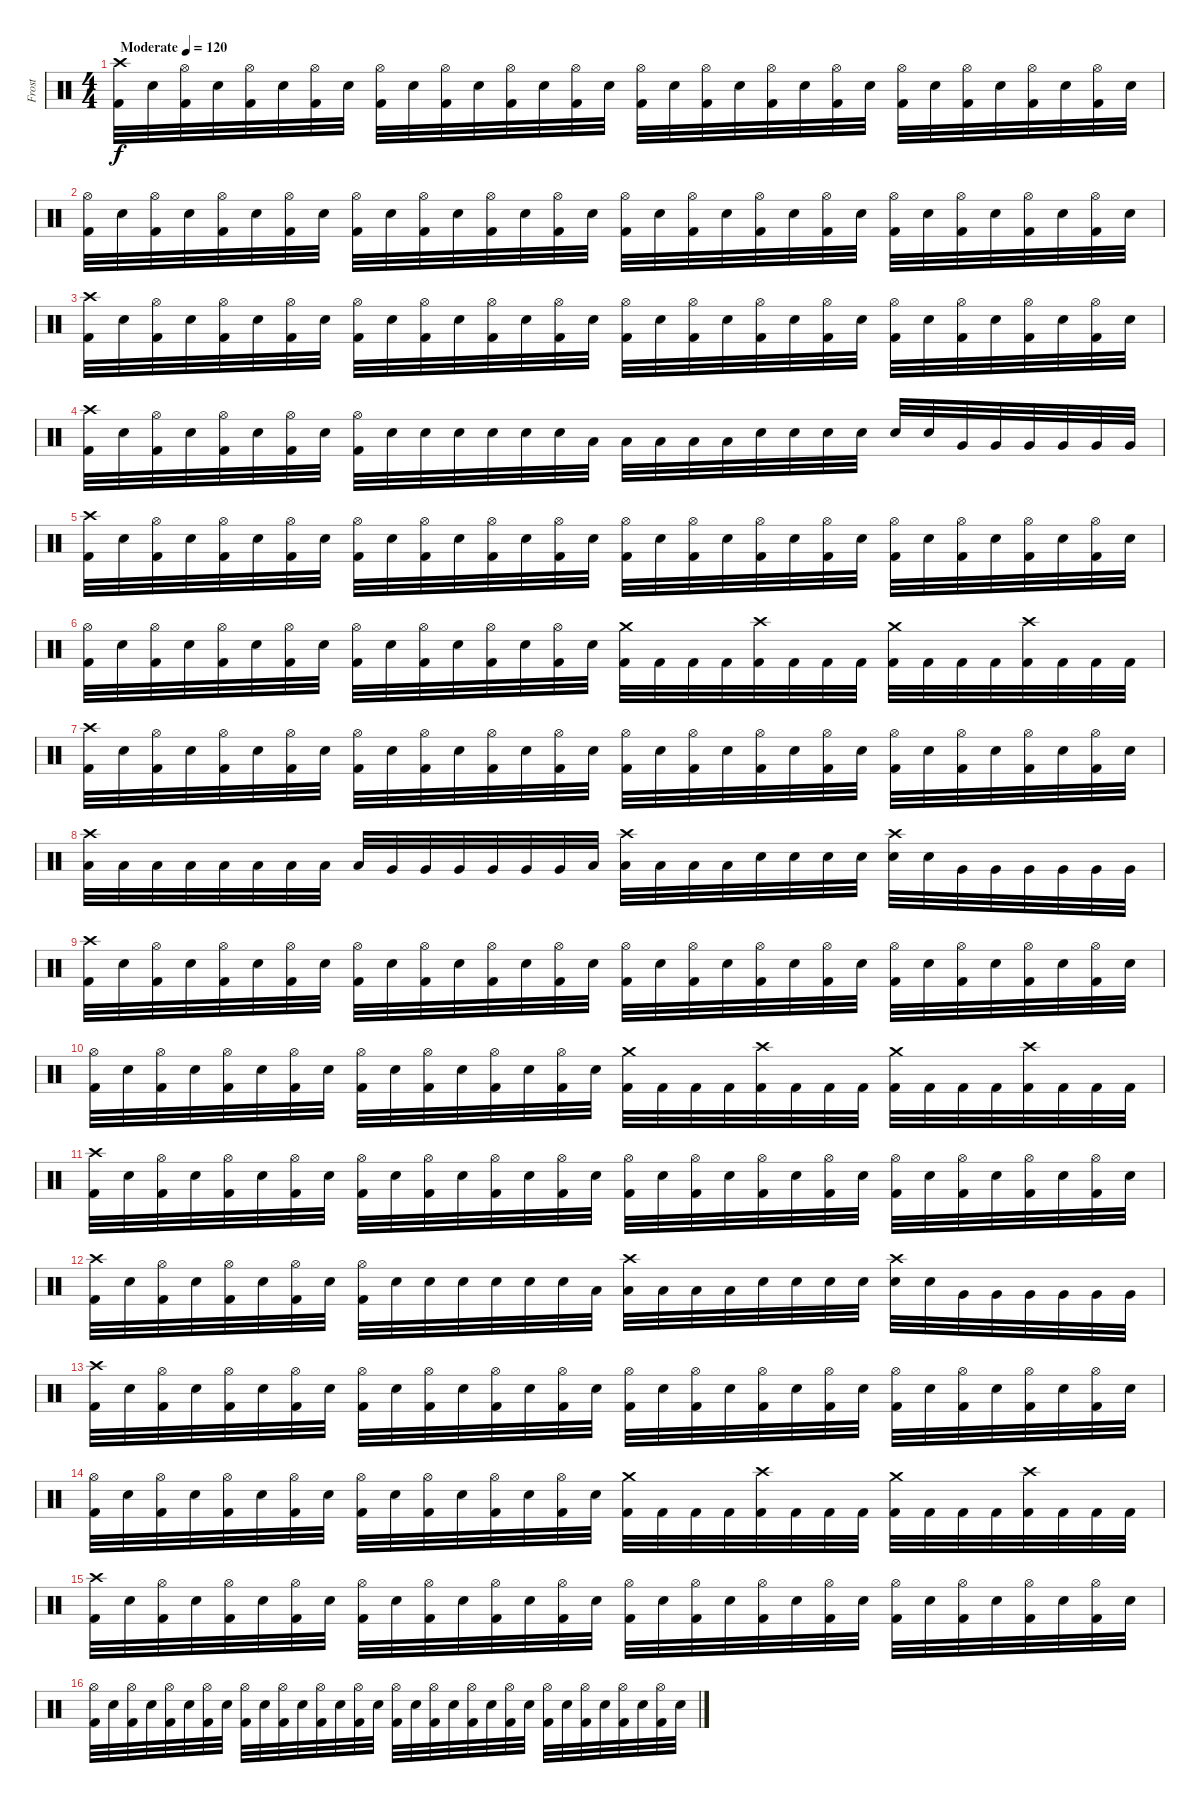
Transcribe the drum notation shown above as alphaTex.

\track ("Frost" "Frost") {instrument percussion}
\staff {score}
\articulation defaults
\ts (4 4)
\tempo (120 "Moderate")
\clef neutral
\ks c
("Crash high (hit)" "Kick (hit) 2").32{dy f} "Snare (hit) 2".32 ("Hi-Hat (open)" "Kick (hit) 2").32 "Snare (hit) 2".32 ("Hi-Hat (open)" "Kick (hit) 2").32 "Snare (hit) 2".32 ("Hi-Hat (open)" "Kick (hit) 2").32 "Snare (hit) 2".32 ("Hi-Hat (open)" "Kick (hit) 2").32 "Snare (hit) 2".32 ("Hi-Hat (open)" "Kick (hit) 2").32 "Snare (hit) 2".32 ("Hi-Hat (open)" "Kick (hit) 2").32 "Snare (hit) 2".32 ("Hi-Hat (open)" "Kick (hit) 2").32 "Snare (hit) 2".32 ("Hi-Hat (open)" "Kick (hit) 2").32 "Snare (hit) 2".32 ("Hi-Hat (open)" "Kick (hit) 2").32 "Snare (hit) 2".32 ("Hi-Hat (open)" "Kick (hit) 2").32 "Snare (hit) 2".32 ("Hi-Hat (open)" "Kick (hit) 2").32 "Snare (hit) 2".32 ("Hi-Hat (open)" "Kick (hit) 2").32 "Snare (hit) 2".32 ("Hi-Hat (open)" "Kick (hit) 2").32 "Snare (hit) 2".32 ("Hi-Hat (open)" "Kick (hit) 2").32 "Snare (hit) 2".32 ("Hi-Hat (open)" "Kick (hit) 2").32 "Snare (hit) 2".32 |
("Hi-Hat (open)" "Kick (hit) 2").32 "Snare (hit) 2".32 ("Hi-Hat (open)" "Kick (hit) 2").32 "Snare (hit) 2".32 ("Hi-Hat (open)" "Kick (hit) 2").32 "Snare (hit) 2".32 ("Hi-Hat (open)" "Kick (hit) 2").32 "Snare (hit) 2".32 ("Hi-Hat (open)" "Kick (hit) 2").32 "Snare (hit) 2".32 ("Hi-Hat (open)" "Kick (hit) 2").32 "Snare (hit) 2".32 ("Hi-Hat (open)" "Kick (hit) 2").32 "Snare (hit) 2".32 ("Hi-Hat (open)" "Kick (hit) 2").32 "Snare (hit) 2".32 ("Hi-Hat (open)" "Kick (hit) 2").32 "Snare (hit) 2".32 ("Hi-Hat (open)" "Kick (hit) 2").32 "Snare (hit) 2".32 ("Hi-Hat (open)" "Kick (hit) 2").32 "Snare (hit) 2".32 ("Hi-Hat (open)" "Kick (hit) 2").32 "Snare (hit) 2".32 ("Hi-Hat (open)" "Kick (hit) 2").32 "Snare (hit) 2".32 ("Hi-Hat (open)" "Kick (hit) 2").32 "Snare (hit) 2".32 ("Hi-Hat (open)" "Kick (hit) 2").32 "Snare (hit) 2".32 ("Hi-Hat (open)" "Kick (hit) 2").32 "Snare (hit) 2".32 |
("Crash high (hit)" "Kick (hit) 2").32 "Snare (hit) 2".32 ("Hi-Hat (open)" "Kick (hit) 2").32 "Snare (hit) 2".32 ("Hi-Hat (open)" "Kick (hit) 2").32 "Snare (hit) 2".32 ("Hi-Hat (open)" "Kick (hit) 2").32 "Snare (hit) 2".32 ("Hi-Hat (open)" "Kick (hit) 2").32 "Snare (hit) 2".32 ("Hi-Hat (open)" "Kick (hit) 2").32 "Snare (hit) 2".32 ("Hi-Hat (open)" "Kick (hit) 2").32 "Snare (hit) 2".32 ("Hi-Hat (open)" "Kick (hit) 2").32 "Snare (hit) 2".32 ("Hi-Hat (open)" "Kick (hit) 2").32 "Snare (hit) 2".32 ("Hi-Hat (open)" "Kick (hit) 2").32 "Snare (hit) 2".32 ("Hi-Hat (open)" "Kick (hit) 2").32 "Snare (hit) 2".32 ("Hi-Hat (open)" "Kick (hit) 2").32 "Snare (hit) 2".32 ("Hi-Hat (open)" "Kick (hit) 2").32 "Snare (hit) 2".32 ("Hi-Hat (open)" "Kick (hit) 2").32 "Snare (hit) 2".32 ("Hi-Hat (open)" "Kick (hit) 2").32 "Snare (hit) 2".32 ("Hi-Hat (open)" "Kick (hit) 2").32 "Snare (hit) 2".32 |
("Crash high (hit)" "Kick (hit) 2").32 "Snare (hit) 2".32 ("Hi-Hat (open)" "Kick (hit) 2").32 "Snare (hit) 2".32 ("Hi-Hat (open)" "Kick (hit) 2").32 "Snare (hit) 2".32 ("Hi-Hat (open)" "Kick (hit) 2").32 "Snare (hit) 2".32 ("Hi-Hat (open)" "Kick (hit) 2").32 "Snare (hit) 2".32 "Snare (hit) 2".32 "Snare (hit) 2".32 "Snare (hit) 2".32 "Snare (hit) 2".32 "Snare (hit) 2".32 "Low Tom (hit)".32 "Low Tom (hit)".32 "Low Tom (hit)".32 "Low Tom (hit)".32 "Low Tom (hit)".32 "Snare (hit) 2".32 "Snare (hit) 2".32 "Snare (hit) 2".32 "Snare (hit) 2".32 "Snare (hit) 2".32 "Snare (hit) 2".32 "Very Low Tom (hit)".32 "Very Low Tom (hit)".32 "Very Low Tom (hit)".32 "Very Low Tom (hit)".32 "Very Low Tom (hit)".32 "Very Low Tom (hit)".32 |
("Crash high (hit)" "Kick (hit) 2").32 "Snare (hit) 2".32 ("Hi-Hat (open)" "Kick (hit) 2").32 "Snare (hit) 2".32 ("Hi-Hat (open)" "Kick (hit) 2").32 "Snare (hit) 2".32 ("Hi-Hat (open)" "Kick (hit) 2").32 "Snare (hit) 2".32 ("Hi-Hat (open)" "Kick (hit) 2").32 "Snare (hit) 2".32 ("Hi-Hat (open)" "Kick (hit) 2").32 "Snare (hit) 2".32 ("Hi-Hat (open)" "Kick (hit) 2").32 "Snare (hit) 2".32 ("Hi-Hat (open)" "Kick (hit) 2").32 "Snare (hit) 2".32 ("Hi-Hat (open)" "Kick (hit) 2").32 "Snare (hit) 2".32 ("Hi-Hat (open)" "Kick (hit) 2").32 "Snare (hit) 2".32 ("Hi-Hat (open)" "Kick (hit) 2").32 "Snare (hit) 2".32 ("Hi-Hat (open)" "Kick (hit) 2").32 "Snare (hit) 2".32 ("Hi-Hat (open)" "Kick (hit) 2").32 "Snare (hit) 2".32 ("Hi-Hat (open)" "Kick (hit) 2").32 "Snare (hit) 2".32 ("Hi-Hat (open)" "Kick (hit) 2").32 "Snare (hit) 2".32 ("Hi-Hat (open)" "Kick (hit) 2").32 "Snare (hit) 2".32 |
("Hi-Hat (open)" "Kick (hit) 2").32 "Snare (hit) 2".32 ("Hi-Hat (open)" "Kick (hit) 2").32 "Snare (hit) 2".32 ("Hi-Hat (open)" "Kick (hit) 2").32 "Snare (hit) 2".32 ("Hi-Hat (open)" "Kick (hit) 2").32 "Snare (hit) 2".32 ("Hi-Hat (open)" "Kick (hit) 2").32 "Snare (hit) 2".32 ("Hi-Hat (open)" "Kick (hit) 2").32 "Snare (hit) 2".32 ("Hi-Hat (open)" "Kick (hit) 2").32 "Snare (hit) 2".32 ("Hi-Hat (open)" "Kick (hit) 2").32 "Snare (hit) 2".32 ("Crash medium (hit)" "Kick (hit) 2").32 "Kick (hit) 2".32 "Kick (hit) 2".32 "Kick (hit) 2".32 ("Crash high (hit)" "Kick (hit) 2").32 "Kick (hit) 2".32 "Kick (hit) 2".32 "Kick (hit) 2".32 ("Crash medium (hit)" "Kick (hit) 2").32 "Kick (hit) 2".32 "Kick (hit) 2".32 "Kick (hit) 2".32 ("Crash high (hit)" "Kick (hit) 2").32 "Kick (hit) 2".32 "Kick (hit) 2".32 "Kick (hit) 2".32 |
("Crash high (hit)" "Kick (hit) 2").32 "Snare (hit) 2".32 ("Hi-Hat (open)" "Kick (hit) 2").32 "Snare (hit) 2".32 ("Hi-Hat (open)" "Kick (hit) 2").32 "Snare (hit) 2".32 ("Hi-Hat (open)" "Kick (hit) 2").32 "Snare (hit) 2".32 ("Hi-Hat (open)" "Kick (hit) 2").32 "Snare (hit) 2".32 ("Hi-Hat (open)" "Kick (hit) 2").32 "Snare (hit) 2".32 ("Hi-Hat (open)" "Kick (hit) 2").32 "Snare (hit) 2".32 ("Hi-Hat (open)" "Kick (hit) 2").32 "Snare (hit) 2".32 ("Hi-Hat (open)" "Kick (hit) 2").32 "Snare (hit) 2".32 ("Hi-Hat (open)" "Kick (hit) 2").32 "Snare (hit) 2".32 ("Hi-Hat (open)" "Kick (hit) 2").32 "Snare (hit) 2".32 ("Hi-Hat (open)" "Kick (hit) 2").32 "Snare (hit) 2".32 ("Hi-Hat (open)" "Kick (hit) 2").32 "Snare (hit) 2".32 ("Hi-Hat (open)" "Kick (hit) 2").32 "Snare (hit) 2".32 ("Hi-Hat (open)" "Kick (hit) 2").32 "Snare (hit) 2".32 ("Hi-Hat (open)" "Kick (hit) 2").32 "Snare (hit) 2".32 |
("Crash high (hit)" "Low Tom (hit)").32 "Low Tom (hit)".32 "Low Tom (hit)".32 "Low Floor Tom (hit)".32 "Low Floor Tom (hit)".32 "Low Floor Tom (hit)".32 "Low Floor Tom (hit)".32 "Low Floor Tom (hit)".32 "Low Floor Tom (hit)".32 "Very Low Tom (hit)".32 "Very Low Tom (hit)".32 "Very Low Tom (hit)".32 "Very Low Tom (hit)".32 "Very Low Tom (hit)".32 "Very Low Tom (hit)".32 "Low Tom (hit)".32 ("Crash high (hit)" "Low Tom (hit)").32 "Low Tom (hit)".32 "Low Tom (hit)".32 "Low Tom (hit)".32 "Snare (hit) 2".32 "Snare (hit) 2".32 "Snare (hit) 2".32 "Snare (hit) 2".32 ("Crash high (hit)" "Snare (hit) 2").32 "Snare (hit) 2".32 "Very Low Tom (hit)".32 "Very Low Tom (hit)".32 "Very Low Tom (hit)".32 "Very Low Tom (hit)".32 "Very Low Tom (hit)".32 "Very Low Tom (hit)".32 |
("Crash high (hit)" "Kick (hit) 2").32 "Snare (hit) 2".32 ("Hi-Hat (open)" "Kick (hit) 2").32 "Snare (hit) 2".32 ("Hi-Hat (open)" "Kick (hit) 2").32 "Snare (hit) 2".32 ("Hi-Hat (open)" "Kick (hit) 2").32 "Snare (hit) 2".32 ("Hi-Hat (open)" "Kick (hit) 2").32 "Snare (hit) 2".32 ("Hi-Hat (open)" "Kick (hit) 2").32 "Snare (hit) 2".32 ("Hi-Hat (open)" "Kick (hit) 2").32 "Snare (hit) 2".32 ("Hi-Hat (open)" "Kick (hit) 2").32 "Snare (hit) 2".32 ("Hi-Hat (open)" "Kick (hit) 2").32 "Snare (hit) 2".32 ("Hi-Hat (open)" "Kick (hit) 2").32 "Snare (hit) 2".32 ("Hi-Hat (open)" "Kick (hit) 2").32 "Snare (hit) 2".32 ("Hi-Hat (open)" "Kick (hit) 2").32 "Snare (hit) 2".32 ("Hi-Hat (open)" "Kick (hit) 2").32 "Snare (hit) 2".32 ("Hi-Hat (open)" "Kick (hit) 2").32 "Snare (hit) 2".32 ("Hi-Hat (open)" "Kick (hit) 2").32 "Snare (hit) 2".32 ("Hi-Hat (open)" "Kick (hit) 2").32 "Snare (hit) 2".32 |
("Hi-Hat (open)" "Kick (hit) 2").32 "Snare (hit) 2".32 ("Hi-Hat (open)" "Kick (hit) 2").32 "Snare (hit) 2".32 ("Hi-Hat (open)" "Kick (hit) 2").32 "Snare (hit) 2".32 ("Hi-Hat (open)" "Kick (hit) 2").32 "Snare (hit) 2".32 ("Hi-Hat (open)" "Kick (hit) 2").32 "Snare (hit) 2".32 ("Hi-Hat (open)" "Kick (hit) 2").32 "Snare (hit) 2".32 ("Hi-Hat (open)" "Kick (hit) 2").32 "Snare (hit) 2".32 ("Hi-Hat (open)" "Kick (hit) 2").32 "Snare (hit) 2".32 ("Crash medium (hit)" "Kick (hit) 2").32 "Kick (hit) 2".32 "Kick (hit) 2".32 "Kick (hit) 2".32 ("Crash high (hit)" "Kick (hit) 2").32 "Kick (hit) 2".32 "Kick (hit) 2".32 "Kick (hit) 2".32 ("Crash medium (hit)" "Kick (hit) 2").32 "Kick (hit) 2".32 "Kick (hit) 2".32 "Kick (hit) 2".32 ("Crash high (hit)" "Kick (hit) 2").32 "Kick (hit) 2".32 "Kick (hit) 2".32 "Kick (hit) 2".32 |
("Crash high (hit)" "Kick (hit) 2").32 "Snare (hit) 2".32 ("Hi-Hat (open)" "Kick (hit) 2").32 "Snare (hit) 2".32 ("Hi-Hat (open)" "Kick (hit) 2").32 "Snare (hit) 2".32 ("Hi-Hat (open)" "Kick (hit) 2").32 "Snare (hit) 2".32 ("Hi-Hat (open)" "Kick (hit) 2").32 "Snare (hit) 2".32 ("Hi-Hat (open)" "Kick (hit) 2").32 "Snare (hit) 2".32 ("Hi-Hat (open)" "Kick (hit) 2").32 "Snare (hit) 2".32 ("Hi-Hat (open)" "Kick (hit) 2").32 "Snare (hit) 2".32 ("Hi-Hat (open)" "Kick (hit) 2").32 "Snare (hit) 2".32 ("Hi-Hat (open)" "Kick (hit) 2").32 "Snare (hit) 2".32 ("Hi-Hat (open)" "Kick (hit) 2").32 "Snare (hit) 2".32 ("Hi-Hat (open)" "Kick (hit) 2").32 "Snare (hit) 2".32 ("Hi-Hat (open)" "Kick (hit) 2").32 "Snare (hit) 2".32 ("Hi-Hat (open)" "Kick (hit) 2").32 "Snare (hit) 2".32 ("Hi-Hat (open)" "Kick (hit) 2").32 "Snare (hit) 2".32 ("Hi-Hat (open)" "Kick (hit) 2").32 "Snare (hit) 2".32 |
("Crash high (hit)" "Kick (hit) 2").32 "Snare (hit) 2".32 ("Hi-Hat (open)" "Kick (hit) 2").32 "Snare (hit) 2".32 ("Hi-Hat (open)" "Kick (hit) 2").32 "Snare (hit) 2".32 ("Hi-Hat (open)" "Kick (hit) 2").32 "Snare (hit) 2".32 ("Hi-Hat (open)" "Kick (hit) 2").32 "Snare (hit) 2".32 "Snare (hit) 2".32 "Snare (hit) 2".32 "Snare (hit) 2".32 "Snare (hit) 2".32 "Snare (hit) 2".32 "Low Tom (hit)".32 ("Crash high (hit)" "Low Tom (hit)").32 "Low Tom (hit)".32 "Low Tom (hit)".32 "Low Tom (hit)".32 "Snare (hit) 2".32 "Snare (hit) 2".32 "Snare (hit) 2".32 "Snare (hit) 2".32 ("Crash high (hit)" "Snare (hit) 2").32 "Snare (hit) 2".32 "Very Low Tom (hit)".32 "Very Low Tom (hit)".32 "Very Low Tom (hit)".32 "Very Low Tom (hit)".32 "Very Low Tom (hit)".32 "Very Low Tom (hit)".32 |
("Crash high (hit)" "Kick (hit) 2").32 "Snare (hit) 2".32 ("Hi-Hat (open)" "Kick (hit) 2").32 "Snare (hit) 2".32 ("Hi-Hat (open)" "Kick (hit) 2").32 "Snare (hit) 2".32 ("Hi-Hat (open)" "Kick (hit) 2").32 "Snare (hit) 2".32 ("Hi-Hat (open)" "Kick (hit) 2").32 "Snare (hit) 2".32 ("Hi-Hat (open)" "Kick (hit) 2").32 "Snare (hit) 2".32 ("Hi-Hat (open)" "Kick (hit) 2").32 "Snare (hit) 2".32 ("Hi-Hat (open)" "Kick (hit) 2").32 "Snare (hit) 2".32 ("Hi-Hat (open)" "Kick (hit) 2").32 "Snare (hit) 2".32 ("Hi-Hat (open)" "Kick (hit) 2").32 "Snare (hit) 2".32 ("Hi-Hat (open)" "Kick (hit) 2").32 "Snare (hit) 2".32 ("Hi-Hat (open)" "Kick (hit) 2").32 "Snare (hit) 2".32 ("Hi-Hat (open)" "Kick (hit) 2").32 "Snare (hit) 2".32 ("Hi-Hat (open)" "Kick (hit) 2").32 "Snare (hit) 2".32 ("Hi-Hat (open)" "Kick (hit) 2").32 "Snare (hit) 2".32 ("Hi-Hat (open)" "Kick (hit) 2").32 "Snare (hit) 2".32 |
("Hi-Hat (open)" "Kick (hit) 2").32 "Snare (hit) 2".32 ("Hi-Hat (open)" "Kick (hit) 2").32 "Snare (hit) 2".32 ("Hi-Hat (open)" "Kick (hit) 2").32 "Snare (hit) 2".32 ("Hi-Hat (open)" "Kick (hit) 2").32 "Snare (hit) 2".32 ("Hi-Hat (open)" "Kick (hit) 2").32 "Snare (hit) 2".32 ("Hi-Hat (open)" "Kick (hit) 2").32 "Snare (hit) 2".32 ("Hi-Hat (open)" "Kick (hit) 2").32 "Snare (hit) 2".32 ("Hi-Hat (open)" "Kick (hit) 2").32 "Snare (hit) 2".32 ("Crash medium (hit)" "Kick (hit) 2").32 "Kick (hit) 2".32 "Kick (hit) 2".32 "Kick (hit) 2".32 ("Crash high (hit)" "Kick (hit) 2").32 "Kick (hit) 2".32 "Kick (hit) 2".32 "Kick (hit) 2".32 ("Crash medium (hit)" "Kick (hit) 2").32 "Kick (hit) 2".32 "Kick (hit) 2".32 "Kick (hit) 2".32 ("Crash high (hit)" "Kick (hit) 2").32 "Kick (hit) 2".32 "Kick (hit) 2".32 "Kick (hit) 2".32 |
("Crash high (hit)" "Kick (hit) 2").32 "Snare (hit) 2".32 ("Hi-Hat (open)" "Kick (hit) 2").32 "Snare (hit) 2".32 ("Hi-Hat (open)" "Kick (hit) 2").32 "Snare (hit) 2".32 ("Hi-Hat (open)" "Kick (hit) 2").32 "Snare (hit) 2".32 ("Hi-Hat (open)" "Kick (hit) 2").32 "Snare (hit) 2".32 ("Hi-Hat (open)" "Kick (hit) 2").32 "Snare (hit) 2".32 ("Hi-Hat (open)" "Kick (hit) 2").32 "Snare (hit) 2".32 ("Hi-Hat (open)" "Kick (hit) 2").32 "Snare (hit) 2".32 ("Hi-Hat (open)" "Kick (hit) 2").32 "Snare (hit) 2".32 ("Hi-Hat (open)" "Kick (hit) 2").32 "Snare (hit) 2".32 ("Hi-Hat (open)" "Kick (hit) 2").32 "Snare (hit) 2".32 ("Hi-Hat (open)" "Kick (hit) 2").32 "Snare (hit) 2".32 ("Hi-Hat (open)" "Kick (hit) 2").32 "Snare (hit) 2".32 ("Hi-Hat (open)" "Kick (hit) 2").32 "Snare (hit) 2".32 ("Hi-Hat (open)" "Kick (hit) 2").32 "Snare (hit) 2".32 ("Hi-Hat (open)" "Kick (hit) 2").32 "Snare (hit) 2".32 |
("Hi-Hat (open)" "Kick (hit) 2").32 "Snare (hit) 2".32 ("Hi-Hat (open)" "Kick (hit) 2").32 "Snare (hit) 2".32 ("Hi-Hat (open)" "Kick (hit) 2").32 "Snare (hit) 2".32 ("Hi-Hat (open)" "Kick (hit) 2").32 "Snare (hit) 2".32 ("Hi-Hat (open)" "Kick (hit) 2").32 "Snare (hit) 2".32 ("Hi-Hat (open)" "Kick (hit) 2").32 "Snare (hit) 2".32 ("Hi-Hat (open)" "Kick (hit) 2").32 "Snare (hit) 2".32 ("Hi-Hat (open)" "Kick (hit) 2").32 "Snare (hit) 2".32 ("Hi-Hat (open)" "Kick (hit) 2").32 "Snare (hit) 2".32 ("Hi-Hat (open)" "Kick (hit) 2").32 "Snare (hit) 2".32 ("Hi-Hat (open)" "Kick (hit) 2").32 "Snare (hit) 2".32 ("Hi-Hat (open)" "Kick (hit) 2").32 "Snare (hit) 2".32 ("Hi-Hat (open)" "Kick (hit) 2").32 "Snare (hit) 2".32 ("Hi-Hat (open)" "Kick (hit) 2").32 "Snare (hit) 2".32 ("Hi-Hat (open)" "Kick (hit) 2").32 "Snare (hit) 2".32 ("Hi-Hat (open)" "Kick (hit) 2").32 "Snare (hit) 2".32
